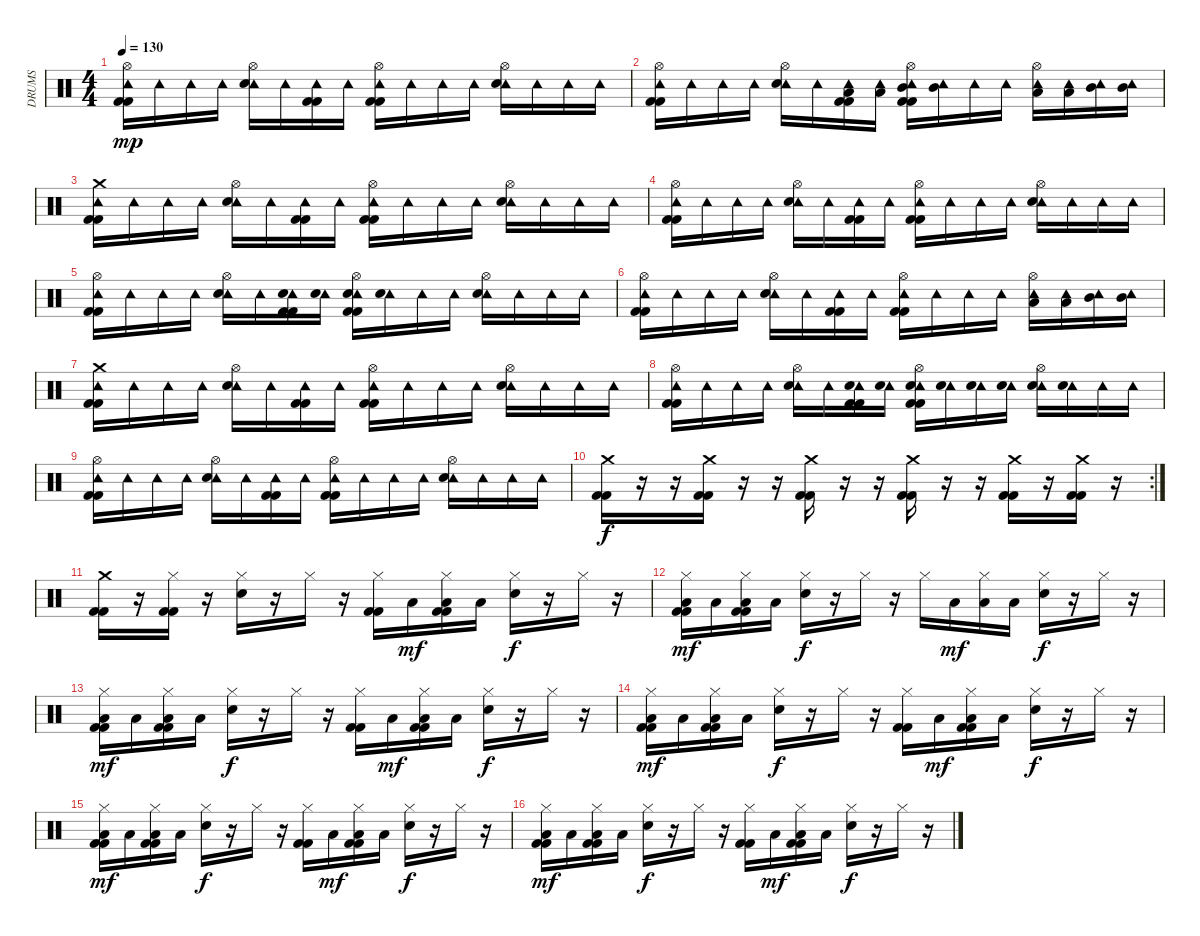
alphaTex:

\track ("DRUMS" "DRUMS") {instrument percussion}
\staff {score}
\articulation defaults
\ts (4 4)
\tempo 130
\clef neutral
\ks c
("Hi-Hat (open)" "Tambourine (hit)" "Kick (hit) 2" "Kick (hit) 2").16{dy mp} "Tambourine (hit)".16 "Tambourine (hit)".16 "Tambourine (hit)".16 ("Hi-Hat (open)" "Tambourine (hit)" "Snare (hit) 2").16 "Tambourine (hit)".16 ("Tambourine (hit)" "Kick (hit) 2" "Kick (hit) 2").16 "Tambourine (hit)".16 ("Hi-Hat (open)" "Tambourine (hit)" "Kick (hit) 2" "Kick (hit) 2").16 "Tambourine (hit)".16 "Tambourine (hit)".16 "Tambourine (hit)".16 ("Hi-Hat (open)" "Tambourine (hit)" "Snare (hit) 2").16 "Tambourine (hit)".16 "Tambourine (hit)".16 "Tambourine (hit)".16 |
("Hi-Hat (open)" "Tambourine (hit)" "Kick (hit) 2" "Kick (hit) 2").16 "Tambourine (hit)".16 "Tambourine (hit)".16 "Tambourine (hit)".16 ("Hi-Hat (open)" "Tambourine (hit)" "Snare (hit) 2").16 "Tambourine (hit)".16 ("Tambourine (hit)" "Low Tom (hit)" "Kick (hit) 2" "Kick (hit) 2").16 ("Tambourine (hit)" "Low Tom (hit)").16 ("Hi-Hat (open)" "Tambourine (hit)" "Mid Tom (hit)" "Kick (hit) 2" "Kick (hit) 2").16 ("Tambourine (hit)" "Mid Tom (hit)").16 "Tambourine (hit)".16 "Tambourine (hit)".16 ("Hi-Hat (open)" "Tambourine (hit)" "Low Tom (hit)").16 ("Tambourine (hit)" "Low Tom (hit)").16 ("Tambourine (hit)" "Mid Tom (hit)").16 ("Tambourine (hit)" "Mid Tom (hit)").16 |
("Crash medium (hit)" "Tambourine (hit)" "Kick (hit) 2" "Kick (hit) 2").16 "Tambourine (hit)".16 "Tambourine (hit)".16 "Tambourine (hit)".16 ("Hi-Hat (open)" "Tambourine (hit)" "Snare (hit) 2").16 "Tambourine (hit)".16 ("Tambourine (hit)" "Kick (hit) 2" "Kick (hit) 2").16 "Tambourine (hit)".16 ("Hi-Hat (open)" "Tambourine (hit)" "Kick (hit) 2" "Kick (hit) 2").16 "Tambourine (hit)".16 "Tambourine (hit)".16 "Tambourine (hit)".16 ("Hi-Hat (open)" "Tambourine (hit)" "Snare (hit) 2").16 "Tambourine (hit)".16 "Tambourine (hit)".16 "Tambourine (hit)".16 |
("Hi-Hat (open)" "Tambourine (hit)" "Kick (hit) 2" "Kick (hit) 2").16 "Tambourine (hit)".16 "Tambourine (hit)".16 "Tambourine (hit)".16 ("Hi-Hat (open)" "Tambourine (hit)" "Snare (hit) 2").16 "Tambourine (hit)".16 ("Tambourine (hit)" "Kick (hit) 2" "Kick (hit) 2").16 "Tambourine (hit)".16 ("Hi-Hat (open)" "Tambourine (hit)" "Kick (hit) 2" "Kick (hit) 2").16 "Tambourine (hit)".16 "Tambourine (hit)".16 "Tambourine (hit)".16 ("Hi-Hat (open)" "Tambourine (hit)" "Snare (hit) 2").16 "Tambourine (hit)".16 "Tambourine (hit)".16 "Tambourine (hit)".16 |
("Hi-Hat (open)" "Tambourine (hit)" "Kick (hit) 2" "Kick (hit) 2").16 "Tambourine (hit)".16 "Tambourine (hit)".16 "Tambourine (hit)".16 ("Hi-Hat (open)" "Tambourine (hit)" "Snare (hit) 2").16 "Tambourine (hit)".16 ("Tambourine (hit)" "Electric Snare (hit)" "Kick (hit) 2" "Kick (hit) 2").16 ("Tambourine (hit)" "Electric Snare (hit)").16 ("Hi-Hat (open)" "Tambourine (hit)" "Electric Snare (hit)" "Kick (hit) 2" "Kick (hit) 2").16 ("Tambourine (hit)" "Snare (hit) 2").16 "Tambourine (hit)".16 "Tambourine (hit)".16 ("Hi-Hat (open)" "Tambourine (hit)" "Snare (hit) 2").16 "Tambourine (hit)".16 "Tambourine (hit)".16 "Tambourine (hit)".16 |
("Hi-Hat (open)" "Tambourine (hit)" "Kick (hit) 2" "Kick (hit) 2").16 "Tambourine (hit)".16 "Tambourine (hit)".16 "Tambourine (hit)".16 ("Hi-Hat (open)" "Tambourine (hit)" "Snare (hit) 2").16 "Tambourine (hit)".16 ("Tambourine (hit)" "Kick (hit) 2" "Kick (hit) 2").16 "Tambourine (hit)".16 ("Hi-Hat (open)" "Tambourine (hit)" "Kick (hit) 2" "Kick (hit) 2").16 "Tambourine (hit)".16 "Tambourine (hit)".16 "Tambourine (hit)".16 ("Hi-Hat (open)" "Tambourine (hit)" "Low Tom (hit)").16 ("Tambourine (hit)" "Low Tom (hit)").16 ("Tambourine (hit)" "Mid Tom (hit)").16 ("Tambourine (hit)" "Mid Tom (hit)").16 |
("Crash medium (hit)" "Tambourine (hit)" "Kick (hit) 2" "Kick (hit) 2").16 "Tambourine (hit)".16 "Tambourine (hit)".16 "Tambourine (hit)".16 ("Hi-Hat (open)" "Tambourine (hit)" "Snare (hit) 2").16 "Tambourine (hit)".16 ("Tambourine (hit)" "Kick (hit) 2" "Kick (hit) 2").16 "Tambourine (hit)".16 ("Hi-Hat (open)" "Tambourine (hit)" "Kick (hit) 2" "Kick (hit) 2").16 "Tambourine (hit)".16 "Tambourine (hit)".16 "Tambourine (hit)".16 ("Hi-Hat (open)" "Tambourine (hit)" "Snare (hit) 2").16 "Tambourine (hit)".16 "Tambourine (hit)".16 "Tambourine (hit)".16 |
("Hi-Hat (open)" "Tambourine (hit)" "Kick (hit) 2" "Kick (hit) 2").16 "Tambourine (hit)".16 "Tambourine (hit)".16 "Tambourine (hit)".16 ("Hi-Hat (open)" "Tambourine (hit)" "Snare (hit) 2").16 "Tambourine (hit)".16 ("Tambourine (hit)" "Electric Snare (hit)" "Kick (hit) 2" "Kick (hit) 2").16 ("Tambourine (hit)" "Electric Snare (hit)").16 ("Hi-Hat (open)" "Tambourine (hit)" "Electric Snare (hit)" "Kick (hit) 2" "Kick (hit) 2").16 ("Tambourine (hit)" "Snare (hit) 2").16 ("Tambourine (hit)" "Electric Snare (hit)").16 ("Tambourine (hit)" "Electric Snare (hit)").16 ("Hi-Hat (open)" "Tambourine (hit)" "Electric Snare (hit)").16 ("Tambourine (hit)" "Snare (hit) 2").16 "Tambourine (hit)".16 "Tambourine (hit)".16 |
("Hi-Hat (open)" "Tambourine (hit)" "Kick (hit) 2" "Kick (hit) 2").16 "Tambourine (hit)".16 "Tambourine (hit)".16 "Tambourine (hit)".16 ("Hi-Hat (open)" "Tambourine (hit)" "Snare (hit) 2").16 "Tambourine (hit)".16 ("Tambourine (hit)" "Kick (hit) 2" "Kick (hit) 2").16 "Tambourine (hit)".16 ("Hi-Hat (open)" "Tambourine (hit)" "Kick (hit) 2" "Kick (hit) 2").16 "Tambourine (hit)".16 "Tambourine (hit)".16 "Tambourine (hit)".16 ("Hi-Hat (open)" "Tambourine (hit)" "Snare (hit) 2").16 "Tambourine (hit)".16 "Tambourine (hit)".16 "Tambourine (hit)".16 |
\rc 2
("Crash medium (hit)" "Kick (hit) 2" "Kick (hit) 2").16{dy f} r.16 r.16 ("Crash medium (hit)" "Kick (hit) 2" "Kick (hit) 2").16 r.16 r.16 ("Crash medium (hit)" "Kick (hit) 2" "Kick (hit) 2").16 r.16 r.16 ("Crash medium (hit)" "Kick (hit) 2" "Kick (hit) 2").16 r.16 r.16 ("Crash medium (hit)" "Kick (hit) 2" "Kick (hit) 2").16 r.16 ("Crash medium (hit)" "Kick (hit) 2" "Kick (hit) 2").16 r.16 |
("Crash medium (hit)" "Kick (hit) 2" "Kick (hit) 2").16 r.16 ("Hi-Hat (closed)" "Kick (hit) 2" "Kick (hit) 2").16 r.16 ("Hi-Hat (closed)" "Snare (hit) 2").16 r.16 "Hi-Hat (closed)".16 r.16 ("Hi-Hat (closed)" "Kick (hit) 2" "Kick (hit) 2").16 "Low Tom (hit)".16{dy mf} ("Hi-Hat (closed)" "Low Tom (hit)" "Kick (hit) 2" "Kick (hit) 2").16 "Low Tom (hit)".16 ("Hi-Hat (closed)" "Snare (hit) 2").16{dy f} r.16 "Hi-Hat (closed)".16 r.16 |
("Hi-Hat (closed)" "Low Tom (hit)" "Kick (hit) 2" "Kick (hit) 2").16{dy mf} "Low Tom (hit)".16 ("Hi-Hat (closed)" "Low Tom (hit)" "Kick (hit) 2" "Kick (hit) 2").16 "Low Tom (hit)".16 ("Hi-Hat (closed)" "Snare (hit) 2").16{dy f} r.16 "Hi-Hat (closed)".16 r.16 "Hi-Hat (closed)".16 "Low Tom (hit)".16{dy mf} ("Hi-Hat (closed)" "Low Tom (hit)").16 "Low Tom (hit)".16 ("Hi-Hat (closed)" "Snare (hit) 2").16{dy f} r.16 "Hi-Hat (closed)".16 r.16 |
("Hi-Hat (closed)" "Low Tom (hit)" "Kick (hit) 2" "Kick (hit) 2").16{dy mf} "Low Tom (hit)".16 ("Hi-Hat (closed)" "Low Tom (hit)" "Kick (hit) 2" "Kick (hit) 2").16 "Low Tom (hit)".16 ("Hi-Hat (closed)" "Snare (hit) 2").16{dy f} r.16 "Hi-Hat (closed)".16 r.16 ("Hi-Hat (closed)" "Kick (hit) 2" "Kick (hit) 2").16 "Low Tom (hit)".16{dy mf} ("Hi-Hat (closed)" "Low Tom (hit)" "Kick (hit) 2" "Kick (hit) 2").16 "Low Tom (hit)".16 ("Hi-Hat (closed)" "Snare (hit) 2").16{dy f} r.16 "Hi-Hat (closed)".16 r.16 |
("Hi-Hat (closed)" "Low Tom (hit)" "Kick (hit) 2" "Kick (hit) 2").16{dy mf} "Low Tom (hit)".16 ("Hi-Hat (closed)" "Low Tom (hit)" "Kick (hit) 2" "Kick (hit) 2").16 "Low Tom (hit)".16 ("Hi-Hat (closed)" "Snare (hit) 2").16{dy f} r.16 "Hi-Hat (closed)".16 r.16 ("Hi-Hat (closed)" "Kick (hit) 2" "Kick (hit) 2").16 "Low Tom (hit)".16{dy mf} ("Hi-Hat (closed)" "Low Tom (hit)" "Kick (hit) 2" "Kick (hit) 2").16 "Low Tom (hit)".16 ("Hi-Hat (closed)" "Snare (hit) 2").16{dy f} r.16 "Hi-Hat (closed)".16 r.16 |
("Hi-Hat (closed)" "Low Tom (hit)" "Kick (hit) 2" "Kick (hit) 2").16{dy mf} "Low Tom (hit)".16 ("Hi-Hat (closed)" "Low Tom (hit)" "Kick (hit) 2" "Kick (hit) 2").16 "Low Tom (hit)".16 ("Hi-Hat (closed)" "Snare (hit) 2").16{dy f} r.16 "Hi-Hat (closed)".16 r.16 ("Hi-Hat (closed)" "Kick (hit) 2" "Kick (hit) 2").16 "Low Tom (hit)".16{dy mf} ("Hi-Hat (closed)" "Low Tom (hit)" "Kick (hit) 2" "Kick (hit) 2").16 "Low Tom (hit)".16 ("Hi-Hat (closed)" "Snare (hit) 2").16{dy f} r.16 "Hi-Hat (closed)".16 r.16 |
("Hi-Hat (closed)" "Low Tom (hit)" "Kick (hit) 2" "Kick (hit) 2").16{dy mf} "Low Tom (hit)".16 ("Hi-Hat (closed)" "Low Tom (hit)" "Kick (hit) 2" "Kick (hit) 2").16 "Low Tom (hit)".16 ("Hi-Hat (closed)" "Snare (hit) 2").16{dy f} r.16 "Hi-Hat (closed)".16 r.16 ("Hi-Hat (closed)" "Kick (hit) 2" "Kick (hit) 2").16 "Low Tom (hit)".16{dy mf} ("Hi-Hat (closed)" "Low Tom (hit)" "Kick (hit) 2" "Kick (hit) 2").16 "Low Tom (hit)".16 ("Hi-Hat (closed)" "Snare (hit) 2").16{dy f} r.16 "Hi-Hat (closed)".16 r.16
